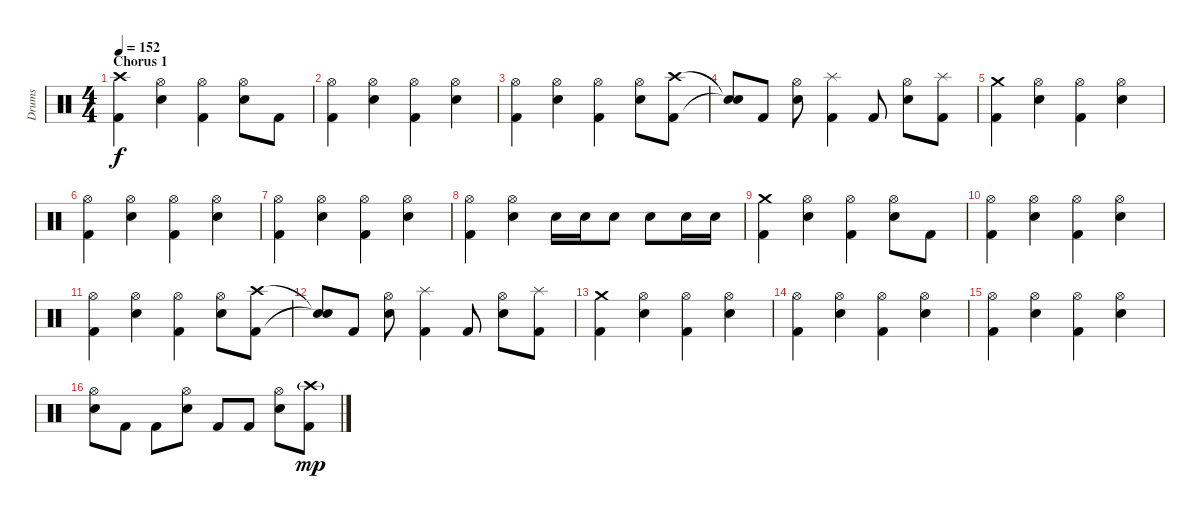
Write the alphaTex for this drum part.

\track ("Drums" "Drums") {instrument percussion}
\staff {score}
\articulation defaults
\ts (4 4)
\section ("" "Chorus 1")
\tempo 152
\clef neutral
\ks c
("Crash high (hit)" "Kick (hit) 2").4{dy f} ("Hi-Hat (open)" "Snare (hit) 2").4 ("Hi-Hat (open)" "Kick (hit) 2").4 ("Hi-Hat (open)" "Snare (hit) 2").8 "Kick (hit) 2".8 |
("Hi-Hat (open)" "Kick (hit) 2").4 ("Hi-Hat (open)" "Snare (hit) 2").4 ("Hi-Hat (open)" "Kick (hit) 2").4 ("Hi-Hat (open)" "Snare (hit) 2").4 |
("Hi-Hat (open)" "Kick (hit) 2").4 ("Hi-Hat (open)" "Snare (hit) 2").4 ("Hi-Hat (open)" "Kick (hit) 2").4 ("Hi-Hat (open)" "Snare (hit) 2").8 ("Crash high (hit)" "Kick (hit) 2").8 |
("Snare (hit)"{t} "Snare (hit)"{t}).8 "Kick (hit) 2".8 ("Hi-Hat (open)" "Snare (hit) 2").8 ("Splash (hit)" "Kick (hit) 2").4 "Kick (hit) 2".8 ("Hi-Hat (open)" "Snare (hit) 2").8 ("Splash (hit)" "Kick (hit) 2").8 |
("Crash medium (hit)" "Kick (hit) 2").4 ("Hi-Hat (open)" "Snare (hit) 2").4 ("Hi-Hat (open)" "Kick (hit) 2").4 ("Hi-Hat (open)" "Snare (hit) 2").4 |
("Hi-Hat (open)" "Kick (hit) 2").4 ("Hi-Hat (open)" "Snare (hit) 2").4 ("Hi-Hat (open)" "Kick (hit) 2").4 ("Hi-Hat (open)" "Snare (hit) 2").4 |
("Hi-Hat (open)" "Kick (hit) 2").4 ("Hi-Hat (open)" "Snare (hit) 2").4 ("Hi-Hat (open)" "Kick (hit) 2").4 ("Hi-Hat (open)" "Snare (hit) 2").4 |
("Hi-Hat (open)" "Kick (hit) 2").4 ("Hi-Hat (open)" "Snare (hit) 2").4 "Snare (hit) 2".16 "Snare (hit) 2".16 "Snare (hit) 2".8 "Snare (hit) 2".8 "Snare (hit) 2".16 "Snare (hit) 2".16 |
("Crash medium (hit)" "Kick (hit) 2").4 ("Hi-Hat (open)" "Snare (hit) 2").4 ("Hi-Hat (open)" "Kick (hit) 2").4 ("Hi-Hat (open)" "Snare (hit) 2").8 "Kick (hit) 2".8 |
("Hi-Hat (open)" "Kick (hit) 2").4 ("Hi-Hat (open)" "Snare (hit) 2").4 ("Hi-Hat (open)" "Kick (hit) 2").4 ("Hi-Hat (open)" "Snare (hit) 2").4 |
("Hi-Hat (open)" "Kick (hit) 2").4 ("Hi-Hat (open)" "Snare (hit) 2").4 ("Hi-Hat (open)" "Kick (hit) 2").4 ("Hi-Hat (open)" "Snare (hit) 2").8 ("Crash high (hit)" "Kick (hit) 2").8 |
("Snare (hit)"{t} "Snare (hit)"{t}).8 "Kick (hit) 2".8 ("Hi-Hat (open)" "Snare (hit) 2").8 ("Splash (hit)" "Kick (hit) 2").4 "Kick (hit) 2".8 ("Hi-Hat (open)" "Snare (hit) 2").8 ("Splash (hit)" "Kick (hit) 2").8 |
("Crash medium (hit)" "Kick (hit) 2").4 ("Hi-Hat (open)" "Snare (hit) 2").4 ("Hi-Hat (open)" "Kick (hit) 2").4 ("Hi-Hat (open)" "Snare (hit) 2").4 |
("Hi-Hat (open)" "Kick (hit) 2").4 ("Hi-Hat (open)" "Snare (hit) 2").4 ("Hi-Hat (open)" "Kick (hit) 2").4 ("Hi-Hat (open)" "Snare (hit) 2").4 |
("Hi-Hat (open)" "Kick (hit) 2").4 ("Hi-Hat (open)" "Snare (hit) 2").4 ("Hi-Hat (open)" "Kick (hit) 2").4 ("Hi-Hat (open)" "Snare (hit) 2").4 |
("Hi-Hat (open)" "Snare (hit) 2").8 "Kick (hit) 2".8 "Kick (hit) 2".8 ("Hi-Hat (open)" "Snare (hit) 2").8 "Kick (hit) 2".8 "Kick (hit) 2".8 ("Hi-Hat (open)" "Snare (hit) 2").8 ("Crash high (hit)"{g} "Kick (hit) 2").8{dy mp}
